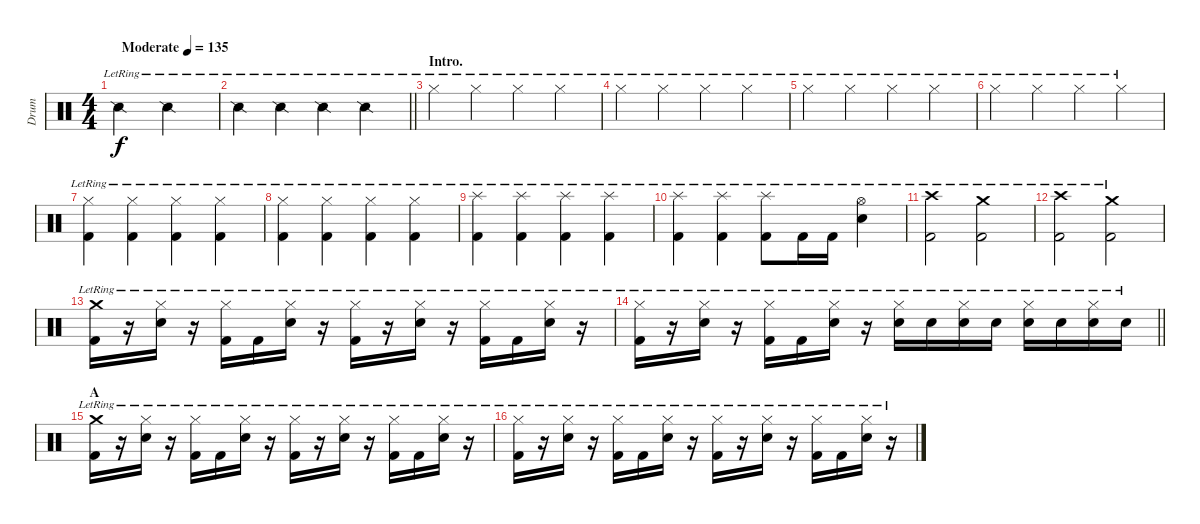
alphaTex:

\track ("Drum" "Drum") {instrument percussion}
\staff {score}
\articulation defaults
\ts (4 4)
\tempo (135 "Moderate")
\clef neutral
\ks c "Snare (side stick) 2"{lr}.2{dy f} "Snare (side stick) 2"{lr}.2
|
\barLineRight lightlight "Snare (side stick) 2"{lr}.4 "Snare (side stick) 2"{lr}.4 "Snare (side stick) 2"{lr}.4 "Snare (side stick) 2"{lr}.4
|
\section ("" "Intro.")
"Hi-Hat (closed)"{lr}.4 "Hi-Hat (closed)"{lr}.4 "Hi-Hat (closed)"{lr}.4 "Hi-Hat (closed)"{lr}.4 |
"Hi-Hat (closed)"{lr}.4 "Hi-Hat (closed)"{lr}.4 "Hi-Hat (closed)"{lr}.4 "Hi-Hat (closed)"{lr}.4 |
"Hi-Hat (closed)"{lr}.4 "Hi-Hat (closed)"{lr}.4 "Hi-Hat (closed)"{lr}.4 "Hi-Hat (closed)"{lr}.4 |
"Hi-Hat (closed)"{lr}.4 "Hi-Hat (closed)"{lr}.4 "Hi-Hat (closed)"{lr}.4 "Hi-Hat (closed)"{lr}.4 |
("Hi-Hat (closed)"{lr} "Kick (hit) 2"{lr}).4 ("Hi-Hat (closed)"{lr} "Kick (hit) 2"{lr}).4 ("Hi-Hat (closed)"{lr} "Kick (hit) 2"{lr}).4 ("Hi-Hat (closed)"{lr} "Kick (hit) 2"{lr}).4 |
("Hi-Hat (closed)"{lr} "Kick (hit) 2"{lr}).4 ("Hi-Hat (closed)"{lr} "Kick (hit) 2"{lr}).4 ("Hi-Hat (closed)"{lr} "Kick (hit) 2"{lr}).4 ("Hi-Hat (closed)"{lr} "Kick (hit) 2"{lr}).4 |
("Splash (hit)"{lr} "Kick (hit) 2"{lr}).4 ("Splash (hit)"{lr} "Kick (hit) 2"{lr}).4 ("Splash (hit)"{lr} "Kick (hit) 2"{lr}).4 ("Splash (hit)"{lr} "Kick (hit) 2"{lr}).4 |
("Splash (hit)"{lr} "Kick (hit) 2"{lr}).4 ("Splash (hit)"{lr} "Kick (hit) 2"{lr}).4 ("Splash (hit)"{lr} "Kick (hit) 2"{lr}).8 "Kick (hit) 2"{lr}.16 "Kick (hit) 2"{lr}.16 ("Hi-Hat (open)"{lr} "Snare (hit) 2"{lr}).4 |
("Crash high (hit)"{lr} "Kick (hit) 2"{lr}).2 ("Crash medium (hit)"{lr} "Kick (hit) 2"{lr}).2 |
("Crash high (hit)"{lr} "Kick (hit) 2"{lr}).2 ("Crash medium (hit)"{lr} "Kick (hit) 2"{lr}).2 |
("Crash medium (hit)"{lr} "Kick (hit) 2"{lr}).16 r.16 ("Hi-Hat (closed)"{lr} "Snare (hit) 2"{lr}).16 r.16 ("Hi-Hat (closed)"{lr} "Kick (hit) 2"{lr}).16 "Kick (hit) 2"{lr}.16 ("Hi-Hat (closed)"{lr} "Snare (hit) 2"{lr}).16 r.16 ("Hi-Hat (closed)"{lr} "Kick (hit) 2"{lr}).16 r.16 ("Hi-Hat (closed)"{lr} "Snare (hit) 2"{lr}).16 r.16 ("Hi-Hat (closed)"{lr} "Kick (hit) 2"{lr}).16 "Kick (hit) 2"{lr}.16 ("Hi-Hat (closed)"{lr} "Snare (hit) 2"{lr}).16 r.16 |
\barLineRight lightlight
("Hi-Hat (closed)"{lr} "Kick (hit) 2"{lr}).16 r.16 ("Hi-Hat (closed)"{lr} "Snare (hit) 2"{lr}).16 r.16 ("Hi-Hat (closed)"{lr} "Kick (hit) 2"{lr}).16 "Kick (hit) 2"{lr}.16 ("Hi-Hat (closed)"{lr} "Snare (hit) 2"{lr}).16 r.16 ("Hi-Hat (closed)"{lr} "Snare (hit) 2"{lr}).16 "Snare (hit) 2"{lr}.16 ("Hi-Hat (closed)"{lr} "Snare (hit) 2"{lr}).16 "Snare (hit) 2"{lr}.16 ("Hi-Hat (closed)"{lr} "Snare (hit) 2"{lr}).16 "Snare (hit) 2"{lr}.16 ("Hi-Hat (closed)"{lr} "Snare (hit) 2"{lr}).16 "Snare (hit) 2"{lr}.16 |
\section ("" "A")
("Crash medium (hit)"{lr} "Kick (hit) 2"{lr}).16 r.16 ("Hi-Hat (closed)"{lr} "Snare (hit) 2"{lr}).16 r.16 ("Hi-Hat (closed)"{lr} "Kick (hit) 2"{lr}).16 "Kick (hit) 2"{lr}.16 ("Hi-Hat (closed)"{lr} "Snare (hit) 2"{lr}).16 r.16 ("Hi-Hat (closed)"{lr} "Kick (hit) 2"{lr}).16 r.16 ("Hi-Hat (closed)"{lr} "Snare (hit) 2"{lr}).16 r.16 ("Hi-Hat (closed)"{lr} "Kick (hit) 2"{lr}).16 "Kick (hit) 2"{lr}.16 ("Hi-Hat (closed)"{lr} "Snare (hit) 2"{lr}).16 r.16 |
("Hi-Hat (closed)"{lr} "Kick (hit) 2"{lr}).16 r.16 ("Hi-Hat (closed)"{lr} "Snare (hit) 2"{lr}).16 r.16 ("Hi-Hat (closed)"{lr} "Kick (hit) 2"{lr}).16 "Kick (hit) 2"{lr}.16 ("Hi-Hat (closed)"{lr} "Snare (hit) 2"{lr}).16 r.16 ("Hi-Hat (closed)"{lr} "Kick (hit) 2"{lr}).16 r.16 ("Hi-Hat (closed)"{lr} "Snare (hit) 2"{lr}).16 r.16 ("Hi-Hat (closed)"{lr} "Kick (hit) 2"{lr}).16 "Kick (hit) 2"{lr}.16 ("Hi-Hat (closed)"{lr} "Snare (hit) 2"{lr}).16 r.16
